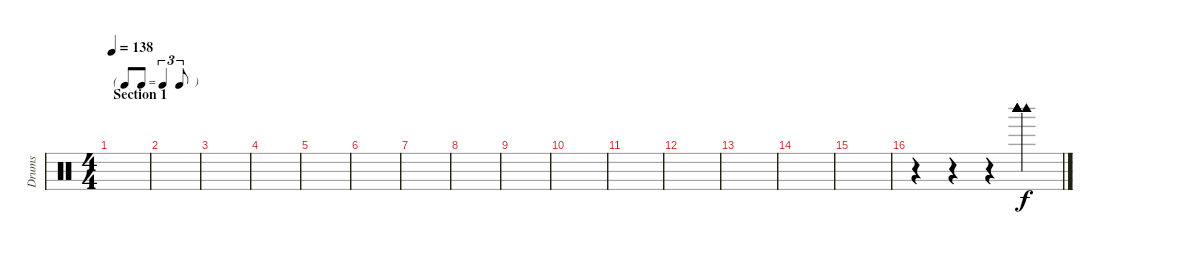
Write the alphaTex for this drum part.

\track ("Drums" "Drums") {instrument percussion}
\staff {score}
\articulation defaults
\ts (4 4)
\tf triplet8th
\section ("" "Section 1")
\tempo 138
\clef neutral
\ks c
|
|
|
|
|
|
|
|
|
|
|
|
|
|
|
r.4 r.4 r.4 ("Woodblock high (hit)" "Woodblock high (hit)" "Woodblock high (hit)" "Woodblock high (hit)" "Woodblock high (hit)" "Woodblock high (hit)").4
